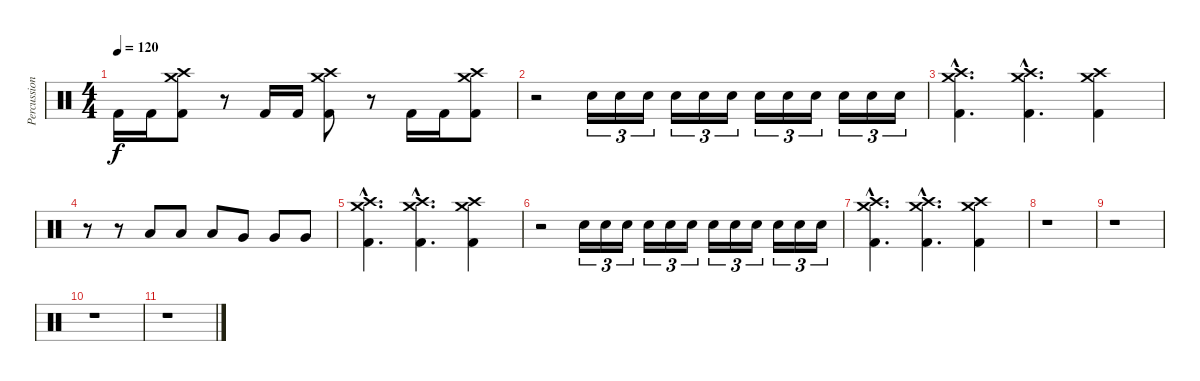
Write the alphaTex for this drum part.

\track ("Percussion" "Percussion") {instrument percussion}
\staff {score}
\articulation defaults
\ts (4 4)
\tempo 120
\clef neutral
\ks c "Kick (hit) 2".16{dy f} "Kick (hit) 2".16
("Crash medium (hit)" "Crash high (hit)" "Kick (hit) 2").8 r.8 "Kick (hit) 2".16 "Kick (hit) 2".16 ("Crash medium (hit)" "Crash high (hit)" "Kick (hit) 2").8 r.8 "Kick (hit) 2".16 "Kick (hit) 2".16 ("Crash medium (hit)" "Crash high (hit)" "Kick (hit) 2").8 |
r.2 "Snare (hit) 2".16{tu (3 2)} "Snare (hit) 2".16{tu (3 2)} "Snare (hit) 2".16{tu (3 2)} "Snare (hit) 2".16{tu (3 2)} "Snare (hit) 2".16{tu (3 2)} "Snare (hit) 2".16{tu (3 2)} "Snare (hit) 2".16{tu (3 2)} "Snare (hit) 2".16{tu (3 2)} "Snare (hit) 2".16{tu (3 2)} "Snare (hit) 2".16{tu (3 2)} "Snare (hit) 2".16{tu (3 2)} "Snare (hit) 2".16{tu (3 2)} |
("Crash medium (hit)"{hac} "Crash high (hit)"{hac} "Kick (hit) 2"{hac}).4{d} ("Crash medium (hit)"{hac} "Crash high (hit)"{hac} "Kick (hit) 2"{hac}).4{d} ("Crash medium (hit)" "Crash high (hit)" "Kick (hit) 2").4 |
r.8 r.8 "Low Tom (hit)".8 "Low Tom (hit)".8 "Low Tom (hit)".8 "Very Low Tom (hit)".8 "Very Low Tom (hit)".8 "Very Low Tom (hit)".8 |
("Crash medium (hit)"{hac} "Crash high (hit)"{hac} "Kick (hit) 2"{hac}).4{d} ("Crash medium (hit)"{hac} "Crash high (hit)"{hac} "Kick (hit) 2"{hac}).4{d} ("Crash medium (hit)" "Crash high (hit)" "Kick (hit) 2").4 |
r.2 "Snare (hit) 2".16{tu (3 2)} "Snare (hit) 2".16{tu (3 2)} "Snare (hit) 2".16{tu (3 2)} "Snare (hit) 2".16{tu (3 2)} "Snare (hit) 2".16{tu (3 2)} "Snare (hit) 2".16{tu (3 2)} "Snare (hit) 2".16{tu (3 2)} "Snare (hit) 2".16{tu (3 2)} "Snare (hit) 2".16{tu (3 2)} "Snare (hit) 2".16{tu (3 2)} "Snare (hit) 2".16{tu (3 2)} "Snare (hit) 2".16{tu (3 2)} |
("Crash medium (hit)"{hac} "Crash high (hit)"{hac} "Kick (hit) 2"{hac}).4{d} ("Crash medium (hit)"{hac} "Crash high (hit)"{hac} "Kick (hit) 2"{hac}).4{d} ("Crash medium (hit)" "Crash high (hit)" "Kick (hit) 2").4 |
r.1 |
r.1 |
r.1 |
r.1
